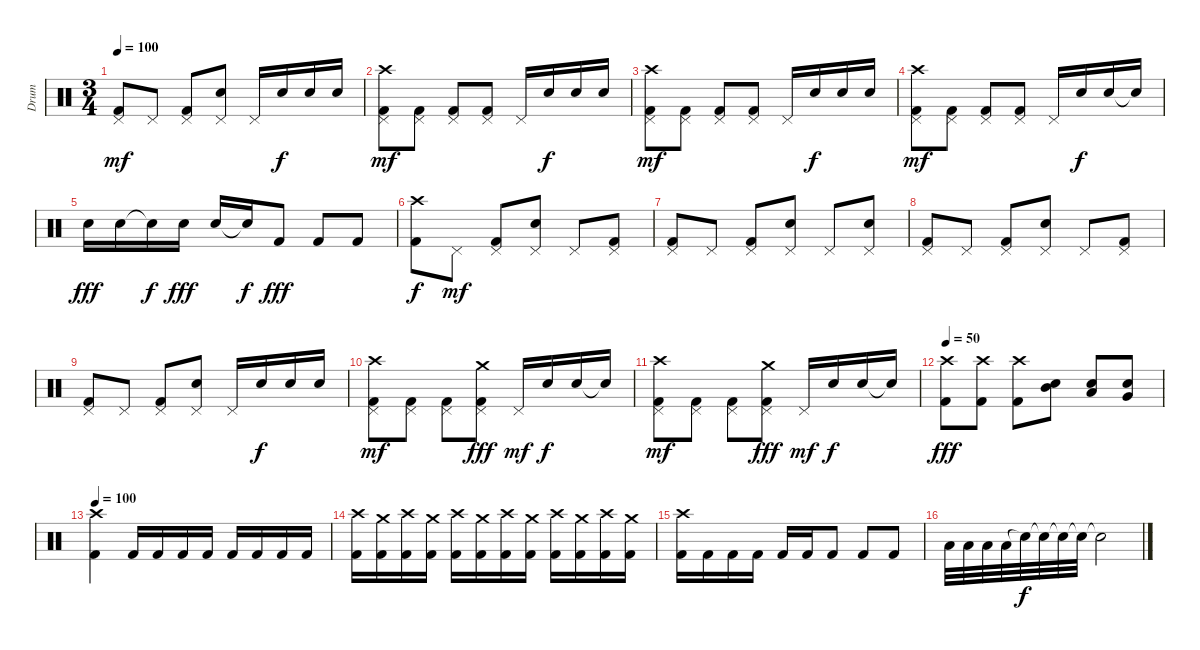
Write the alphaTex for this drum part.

\track ("Drum" "Drum") {instrument percussion}
\staff {score}
\articulation defaults
\ts (3 4)
\tempo 100
\clef neutral
\ks c
("Kick (hit) 2" "Pedal Hi-Hat (hit)").8{dy mf} "Pedal Hi-Hat (hit)".8 ("Kick (hit) 2" "Pedal Hi-Hat (hit)").8 ("Snare (hit) 2" "Pedal Hi-Hat (hit)").8 "Pedal Hi-Hat (hit)".16 "Snare (hit) 2".16{dy f} "Snare (hit) 2".16 "Snare (hit) 2".16 |
("Kick (hit) 2" "Pedal Hi-Hat (hit)" "Crash high (hit)").8{dy mf} ("Kick (hit) 2" "Pedal Hi-Hat (hit)").8 ("Kick (hit) 2" "Pedal Hi-Hat (hit)").8 ("Kick (hit) 2" "Pedal Hi-Hat (hit)").8 "Pedal Hi-Hat (hit)".16 "Snare (hit) 2".16{dy f} "Snare (hit) 2".16 "Snare (hit) 2".16 |
("Kick (hit) 2" "Pedal Hi-Hat (hit)" "Crash high (hit)").8{dy mf} ("Kick (hit) 2" "Pedal Hi-Hat (hit)").8 ("Kick (hit) 2" "Pedal Hi-Hat (hit)").8 ("Kick (hit) 2" "Pedal Hi-Hat (hit)").8 "Pedal Hi-Hat (hit)".16 "Snare (hit) 2".16{dy f} "Snare (hit) 2".16 "Snare (hit) 2".16 |
("Kick (hit) 2" "Pedal Hi-Hat (hit)" "Crash high (hit)").8{dy mf} ("Kick (hit) 2" "Pedal Hi-Hat (hit)").8 ("Kick (hit) 2" "Pedal Hi-Hat (hit)").8 ("Kick (hit) 2" "Pedal Hi-Hat (hit)").8 "Pedal Hi-Hat (hit)".16 "Snare (hit) 2".16{dy f} "Snare (hit) 2".16 "Snare (hit)"{t}.16 |
"Snare (hit) 2".16{dy fff} "Snare (hit) 2".16 "Snare (hit)"{t}.16{dy f} "Snare (hit) 2".16{dy fff} "Snare (hit) 2".16 "Snare (hit)"{t}.16{dy f} "Kick (hit) 2".8{dy fff} "Kick (hit) 2".8 "Kick (hit) 2".8 |
("Kick (hit) 2" "Crash high (hit)").8{dy f} "Pedal Hi-Hat (hit)".8{dy mf} ("Kick (hit) 2" "Pedal Hi-Hat (hit)").8 ("Snare (hit) 2" "Pedal Hi-Hat (hit)").8 "Pedal Hi-Hat (hit)".8 ("Kick (hit) 2" "Pedal Hi-Hat (hit)").8 |
("Kick (hit) 2" "Pedal Hi-Hat (hit)").8 "Pedal Hi-Hat (hit)".8 ("Kick (hit) 2" "Pedal Hi-Hat (hit)").8 ("Snare (hit) 2" "Pedal Hi-Hat (hit)").8 "Pedal Hi-Hat (hit)".8 ("Snare (hit) 2" "Pedal Hi-Hat (hit)").8 |
("Kick (hit) 2" "Pedal Hi-Hat (hit)").8 "Pedal Hi-Hat (hit)".8 ("Kick (hit) 2" "Pedal Hi-Hat (hit)").8 ("Snare (hit) 2" "Pedal Hi-Hat (hit)").8 "Pedal Hi-Hat (hit)".8 ("Kick (hit) 2" "Pedal Hi-Hat (hit)").8 |
("Kick (hit) 2" "Pedal Hi-Hat (hit)").8 "Pedal Hi-Hat (hit)".8 ("Kick (hit) 2" "Pedal Hi-Hat (hit)").8 ("Snare (hit) 2" "Pedal Hi-Hat (hit)").8 "Pedal Hi-Hat (hit)".16 "Snare (hit) 2".16{dy f} "Snare (hit) 2".16 "Snare (hit) 2".16 |
("Kick (hit) 2" "Pedal Hi-Hat (hit)" "Crash high (hit)").8{dy mf} ("Kick (hit) 2" "Pedal Hi-Hat (hit)").8 ("Kick (hit) 2" "Pedal Hi-Hat (hit)").8 ("Kick (hit) 2" "Pedal Hi-Hat (hit)" "Crash medium (hit)").8{dy fff} "Pedal Hi-Hat (hit)".16{dy mf} "Snare (hit) 2".16{dy f} "Snare (hit) 2".16 "Snare (hit)"{t}.16 |
("Kick (hit) 2" "Pedal Hi-Hat (hit)" "Crash high (hit)").8{dy mf} ("Kick (hit) 2" "Pedal Hi-Hat (hit)").8 ("Kick (hit) 2" "Pedal Hi-Hat (hit)").8 ("Kick (hit) 2" "Pedal Hi-Hat (hit)" "Crash medium (hit)").8{dy fff} "Pedal Hi-Hat (hit)".16{dy mf} "Snare (hit) 2".16{dy f} "Snare (hit) 2".16 "Snare (hit)"{t}.16 |
\tempo 50
("Kick (hit) 2" "Crash high (hit)").8{dy fff} ("Kick (hit) 2" "Crash high (hit)").8 ("Kick (hit) 2" "Crash high (hit)").8 ("Snare (hit) 2" "Mid Tom (hit)").8{bd 60} ("Snare (hit) 2" "Low Tom (hit)").8{bd 60} ("Snare (hit) 2" "Very Low Tom (hit)").8{bd 60} |
\tempo 100
("Crash high (hit)" "Kick (hit) 2").4 "Kick (hit) 2".16 "Kick (hit) 2".16 "Kick (hit) 2".16 "Kick (hit) 2".16 "Kick (hit) 2".16 "Kick (hit) 2".16 "Kick (hit) 2".16 "Kick (hit) 2".16 |
("Crash high (hit)" "Kick (hit) 2").16 ("Crash medium (hit)" "Kick (hit) 2").16 ("Crash high (hit)" "Kick (hit) 2").16 ("Crash medium (hit)" "Kick (hit) 2").16 ("Crash high (hit)" "Kick (hit) 2").16 ("Crash medium (hit)" "Kick (hit) 2").16 ("Crash high (hit)" "Kick (hit) 2").16 ("Crash medium (hit)" "Kick (hit) 2").16 ("Crash high (hit)" "Kick (hit) 2").16 ("Crash medium (hit)" "Kick (hit) 2").16 ("Crash high (hit)" "Kick (hit) 2").16 ("Crash medium (hit)" "Kick (hit) 2").16 |
("Crash high (hit)" "Kick (hit) 2").16 "Kick (hit) 2".16 "Kick (hit) 2".16 "Kick (hit) 2".16 "Kick (hit) 2".16 "Kick (hit) 2".16 "Kick (hit) 2".8 "Kick (hit) 2".8 "Kick (hit) 2".8 |
"Low Tom (hit)".32 "Low Tom (hit)".32 "Low Floor Tom (hit)".32 "Low Floor Tom (hit)".32 "Snare (hit)"{t}.32{dy f} "Snare (hit)"{t}.32 "Snare (hit)"{t}.32 "Snare (hit)"{t}.32 "Snare (hit)"{t}.2
